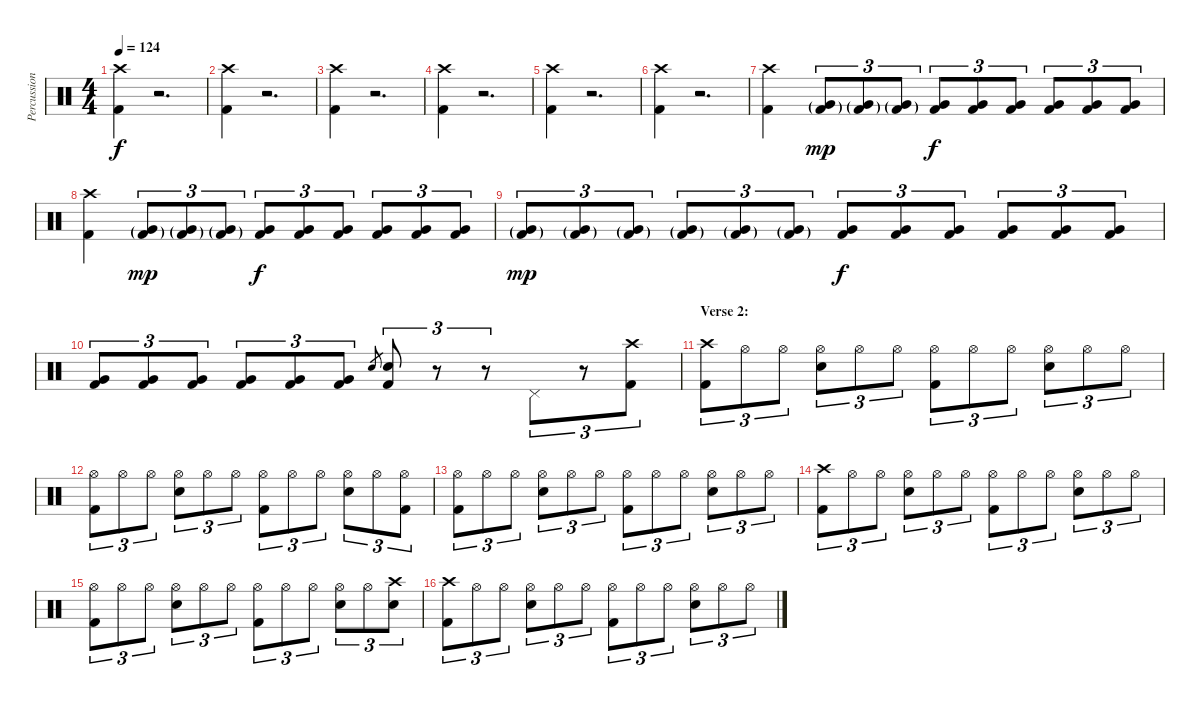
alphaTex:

\track ("Percussion" "Percussion") {instrument percussion}
\staff {score}
\articulation defaults
\ts (4 4)
\tempo 124
\clef neutral
\ks c
("Crash high (hit)" "Kick (hit) 2").4{dy f} r.2{d} |
("Crash high (hit)" "Kick (hit) 2").4 r.2{d} |
("Crash high (hit)" "Kick (hit) 2").4 r.2{d} |
("Crash high (hit)" "Kick (hit) 2").4 r.2{d} |
("Crash high (hit)" "Kick (hit) 2").4 r.2{d} |
("Crash high (hit)" "Kick (hit) 2").4 r.2{d} |
("Crash high (hit)" "Kick (hit) 2").4 ("Very Low Tom (hit)"{g} "Kick (hit) 2"{g}).8{tu (3 2) dy mp} ("Very Low Tom (hit)"{g} "Kick (hit) 2"{g}).8{tu (3 2)} ("Very Low Tom (hit)"{g} "Kick (hit) 2"{g}).8{tu (3 2)} ("Very Low Tom (hit)" "Kick (hit) 2").8{tu (3 2) dy f} ("Very Low Tom (hit)" "Kick (hit) 2").8{tu (3 2)} ("Very Low Tom (hit)" "Kick (hit) 2").8{tu (3 2)} ("Very Low Tom (hit)" "Kick (hit) 2").8{tu (3 2)} ("Very Low Tom (hit)" "Kick (hit) 2").8{tu (3 2)} ("Very Low Tom (hit)" "Kick (hit) 2").8{tu (3 2)} |
("Crash high (hit)" "Kick (hit) 2").4 ("Very Low Tom (hit)"{g} "Kick (hit) 2"{g}).8{tu (3 2) dy mp} ("Very Low Tom (hit)"{g} "Kick (hit) 2"{g}).8{tu (3 2)} ("Very Low Tom (hit)"{g} "Kick (hit) 2"{g}).8{tu (3 2)} ("Very Low Tom (hit)" "Kick (hit) 2").8{tu (3 2) dy f} ("Very Low Tom (hit)" "Kick (hit) 2").8{tu (3 2)} ("Very Low Tom (hit)" "Kick (hit) 2").8{tu (3 2)} ("Very Low Tom (hit)" "Kick (hit) 2").8{tu (3 2)} ("Very Low Tom (hit)" "Kick (hit) 2").8{tu (3 2)} ("Very Low Tom (hit)" "Kick (hit) 2").8{tu (3 2)} |
("Very Low Tom (hit)"{g} "Kick (hit) 2"{g}).8{tu (3 2) dy mp} ("Very Low Tom (hit)"{g} "Kick (hit) 2"{g}).8{tu (3 2)} ("Very Low Tom (hit)"{g} "Kick (hit) 2"{g}).8{tu (3 2)} ("Very Low Tom (hit)"{g} "Kick (hit) 2"{g}).8{tu (3 2)} ("Very Low Tom (hit)"{g} "Kick (hit) 2"{g}).8{tu (3 2)} ("Very Low Tom (hit)"{g} "Kick (hit) 2"{g}).8{tu (3 2)} ("Very Low Tom (hit)" "Kick (hit) 2").8{tu (3 2) dy f} ("Very Low Tom (hit)" "Kick (hit) 2").8{tu (3 2)} ("Very Low Tom (hit)" "Kick (hit) 2").8{tu (3 2)} ("Very Low Tom (hit)" "Kick (hit) 2").8{tu (3 2)} ("Very Low Tom (hit)" "Kick (hit) 2").8{tu (3 2)} ("Very Low Tom (hit)" "Kick (hit) 2").8{tu (3 2)} |
("Very Low Tom (hit)" "Kick (hit) 2").8{tu (3 2)} ("Very Low Tom (hit)" "Kick (hit) 2").8{tu (3 2)} ("Very Low Tom (hit)" "Kick (hit) 2").8{tu (3 2)} ("Very Low Tom (hit)" "Kick (hit) 2").8{tu (3 2)} ("Very Low Tom (hit)" "Kick (hit) 2").8{tu (3 2)} ("Very Low Tom (hit)" "Kick (hit) 2").8{tu (3 2)} "Snare (hit) 2".8{gr} ("Snare (hit) 2" "Kick (hit) 2").8{tu (3 2)} r.8{tu (3 2)} r.8{tu (3 2)} "Pedal Hi-Hat (hit)".8{tu (3 2)} r.8{tu (3 2)} ("Crash high (hit)" "Kick (hit) 2").8{tu (3 2)} |
\section ("" "Verse 2:")
("Crash high (hit)" "Kick (hit) 2").8{tu (3 2)} "Hi-Hat (open)".8{tu (3 2)} "Hi-Hat (open)".8{tu (3 2)} ("Hi-Hat (open)" "Snare (hit) 2").8{tu (3 2)} "Hi-Hat (open)".8{tu (3 2)} "Hi-Hat (open)".8{tu (3 2)} ("Hi-Hat (open)" "Kick (hit) 2").8{tu (3 2)} "Hi-Hat (open)".8{tu (3 2)} "Hi-Hat (open)".8{tu (3 2)} ("Hi-Hat (open)" "Snare (hit) 2").8{tu (3 2)} "Hi-Hat (open)".8{tu (3 2)} "Hi-Hat (open)".8{tu (3 2)} |
("Hi-Hat (open)" "Kick (hit) 2").8{tu (3 2)} "Hi-Hat (open)".8{tu (3 2)} "Hi-Hat (open)".8{tu (3 2)} ("Hi-Hat (open)" "Snare (hit) 2").8{tu (3 2)} "Hi-Hat (open)".8{tu (3 2)} "Hi-Hat (open)".8{tu (3 2)} ("Hi-Hat (open)" "Kick (hit) 2").8{tu (3 2)} "Hi-Hat (open)".8{tu (3 2)} "Hi-Hat (open)".8{tu (3 2)} ("Hi-Hat (open)" "Snare (hit) 2").8{tu (3 2)} "Hi-Hat (open)".8{tu (3 2)} ("Hi-Hat (open)" "Kick (hit) 2").8{tu (3 2)} |
("Hi-Hat (open)" "Kick (hit) 2").8{tu (3 2)} "Hi-Hat (open)".8{tu (3 2)} "Hi-Hat (open)".8{tu (3 2)} ("Hi-Hat (open)" "Snare (hit) 2").8{tu (3 2)} "Hi-Hat (open)".8{tu (3 2)} "Hi-Hat (open)".8{tu (3 2)} ("Hi-Hat (open)" "Kick (hit) 2").8{tu (3 2)} "Hi-Hat (open)".8{tu (3 2)} "Hi-Hat (open)".8{tu (3 2)} ("Hi-Hat (open)" "Snare (hit) 2").8{tu (3 2)} "Hi-Hat (open)".8{tu (3 2)} "Hi-Hat (open)".8{tu (3 2)} |
("Crash high (hit)" "Kick (hit) 2").8{tu (3 2)} "Hi-Hat (open)".8{tu (3 2)} "Hi-Hat (open)".8{tu (3 2)} ("Hi-Hat (open)" "Snare (hit) 2").8{tu (3 2)} "Hi-Hat (open)".8{tu (3 2)} "Hi-Hat (open)".8{tu (3 2)} ("Hi-Hat (open)" "Kick (hit) 2").8{tu (3 2)} "Hi-Hat (open)".8{tu (3 2)} "Hi-Hat (open)".8{tu (3 2)} ("Hi-Hat (open)" "Snare (hit) 2").8{tu (3 2)} "Hi-Hat (open)".8{tu (3 2)} "Hi-Hat (open)".8{tu (3 2)} |
("Hi-Hat (open)" "Kick (hit) 2").8{tu (3 2)} "Hi-Hat (open)".8{tu (3 2)} "Hi-Hat (open)".8{tu (3 2)} ("Hi-Hat (open)" "Snare (hit) 2").8{tu (3 2)} "Hi-Hat (open)".8{tu (3 2)} "Hi-Hat (open)".8{tu (3 2)} ("Hi-Hat (open)" "Kick (hit) 2").8{tu (3 2)} "Hi-Hat (open)".8{tu (3 2)} "Hi-Hat (open)".8{tu (3 2)} ("Hi-Hat (open)" "Snare (hit) 2").8{tu (3 2)} "Hi-Hat (open)".8{tu (3 2)} ("Crash high (hit)" "Snare (hit) 2").8{tu (3 2)} |
("Crash high (hit)" "Kick (hit) 2").8{tu (3 2)} "Hi-Hat (open)".8{tu (3 2)} "Hi-Hat (open)".8{tu (3 2)} ("Hi-Hat (open)" "Snare (hit) 2").8{tu (3 2)} "Hi-Hat (open)".8{tu (3 2)} "Hi-Hat (open)".8{tu (3 2)} ("Hi-Hat (open)" "Kick (hit) 2").8{tu (3 2)} "Hi-Hat (open)".8{tu (3 2)} "Hi-Hat (open)".8{tu (3 2)} ("Hi-Hat (open)" "Snare (hit) 2").8{tu (3 2)} "Hi-Hat (open)".8{tu (3 2)} "Hi-Hat (open)".8{tu (3 2)}
